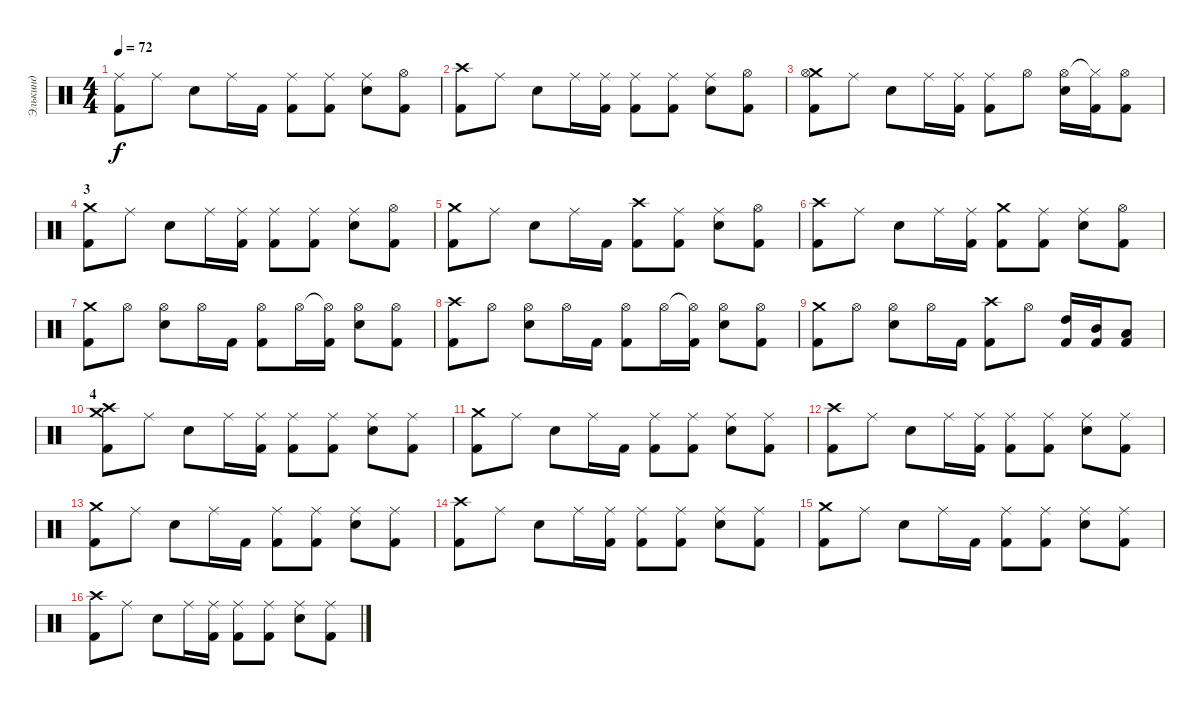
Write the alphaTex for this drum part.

\track ("Элькинд" "Элькинд") {instrument percussion}
\staff {score}
\articulation defaults
\ts (4 4)
\tempo 72
\clef neutral
\ks c
("Ride (middle)" "Kick (hit) 2").8{dy f} "Ride (middle)".8 "Snare (hit) 2".8 "Ride (middle)".16 "Kick (hit) 2".16 ("Ride (middle)" "Kick (hit) 2").8 ("Ride (middle)" "Kick (hit) 2").8 ("Ride (middle)" "Snare (hit) 2").8 ("Hi-Hat (open)" "Kick (hit) 2").8 |
("Crash high (hit)" "Kick (hit) 2").8 "Ride (middle)".8 "Snare (hit) 2".8 "Ride (middle)".16 ("Ride (middle)" "Kick (hit) 2").16 ("Ride (middle)" "Kick (hit) 2").8 ("Ride (middle)" "Kick (hit) 2").8 ("Ride (middle)" "Snare (hit) 2").8 ("Hi-Hat (open)" "Kick (hit) 2").8 |
("Crash medium (hit)" "Hi-Hat (open)" "Kick (hit) 2").8 "Ride (middle)".8 "Snare (hit) 2".8 "Ride (middle)".16 ("Ride (middle)" "Kick (hit) 2").16 ("Ride (middle)" "Kick (hit) 2").8 "Hi-Hat (open)".8 ("Hi-Hat (open)" "Snare (hit) 2").16 ("Hi-Hat (closed)"{t} "Kick (hit) 2").16 ("Hi-Hat (open)" "Kick (hit) 2").8 |
\section ("" "3")
("Crash medium (hit)" "Kick (hit) 2").8 "Ride (middle)".8 "Snare (hit) 2".8 "Ride (middle)".16 ("Ride (middle)" "Kick (hit) 2").16 ("Ride (middle)" "Kick (hit) 2").8 ("Ride (middle)" "Kick (hit) 2").8 ("Ride (middle)" "Snare (hit) 2").8 ("Hi-Hat (open)" "Kick (hit) 2").8 |
("Crash medium (hit)" "Kick (hit) 2").8 "Ride (middle)".8 "Snare (hit) 2".8 "Ride (middle)".16 "Kick (hit) 2".16 ("Crash high (hit)" "Kick (hit) 2").8 ("Ride (middle)" "Kick (hit) 2").8 ("Ride (middle)" "Snare (hit) 2").8 ("Hi-Hat (open)" "Kick (hit) 2").8 |
("Crash high (hit)" "Kick (hit) 2").8 "Ride (middle)".8 "Snare (hit) 2".8 "Ride (middle)".16 ("Ride (middle)" "Kick (hit) 2").16 ("Crash medium (hit)" "Kick (hit) 2").8 ("Ride (middle)" "Kick (hit) 2").8 ("Ride (middle)" "Snare (hit) 2").8 ("Hi-Hat (open)" "Kick (hit) 2").8 |
("Crash medium (hit)" "Kick (hit) 2").8 "Hi-Hat (open)".8 ("Hi-Hat (open)" "Snare (hit) 2").8 "Hi-Hat (open)".16 "Kick (hit) 2".16 ("Hi-Hat (open)" "Kick (hit) 2").8 "Hi-Hat (open)".16 ("Hi-Hat (open)"{t} "Kick (hit) 2").16 ("Hi-Hat (open)" "Snare (hit) 2").8 ("Hi-Hat (open)" "Kick (hit) 2").8 |
("Crash high (hit)" "Kick (hit) 2").8 "Hi-Hat (open)".8 ("Hi-Hat (open)" "Snare (hit) 2").8 "Hi-Hat (open)".16 "Kick (hit) 2".16 ("Hi-Hat (open)" "Kick (hit) 2").8 "Hi-Hat (open)".16 ("Hi-Hat (open)"{t} "Kick (hit) 2").16 ("Hi-Hat (open)" "Snare (hit) 2").8 ("Hi-Hat (open)" "Kick (hit) 2").8 |
("Crash medium (hit)" "Kick (hit) 2").8 "Hi-Hat (open)".8 ("Hi-Hat (open)" "Snare (hit) 2").8 "Hi-Hat (open)".16 "Kick (hit) 2".16 ("Crash high (hit)" "Kick (hit) 2").8 "Hi-Hat (open)".8 ("High Tom (hit)" "Kick (hit) 2").16 ("Mid Tom (hit)" "Kick (hit) 2").16 ("Low Tom (hit)" "Kick (hit) 2").8 |
\section ("" "4")
("Crash medium (hit)" "Crash high (hit)" "Kick (hit) 2").8 "Ride (middle)".8 "Snare (hit) 2".8 "Ride (middle)".16 ("Ride (middle)" "Kick (hit) 2").16 ("Ride (middle)" "Kick (hit) 2").8 ("Ride (middle)" "Kick (hit) 2").8 ("Ride (middle)" "Snare (hit) 2").8 ("Ride (middle)" "Kick (hit) 2").8 |
("Crash medium (hit)" "Kick (hit) 2").8 "Ride (middle)".8 "Snare (hit) 2".8 "Ride (middle)".16 "Kick (hit) 2".16 ("Ride (middle)" "Kick (hit) 2").8 ("Ride (middle)" "Kick (hit) 2").8 ("Ride (middle)" "Snare (hit) 2").8 ("Ride (middle)" "Kick (hit) 2").8 |
("Crash high (hit)" "Kick (hit) 2").8 "Ride (middle)".8 "Snare (hit) 2".8 "Ride (middle)".16 ("Ride (middle)" "Kick (hit) 2").16 ("Ride (middle)" "Kick (hit) 2").8 ("Ride (middle)" "Kick (hit) 2").8 ("Ride (middle)" "Snare (hit) 2").8 ("Ride (middle)" "Kick (hit) 2").8 |
("Crash medium (hit)" "Kick (hit) 2").8 "Ride (middle)".8 "Snare (hit) 2".8 "Ride (middle)".16 "Kick (hit) 2".16 ("Ride (middle)" "Kick (hit) 2").8 ("Ride (middle)" "Kick (hit) 2").8 ("Ride (middle)" "Snare (hit) 2").8 ("Ride (middle)" "Kick (hit) 2").8 |
("Crash high (hit)" "Kick (hit) 2").8 "Ride (middle)".8 "Snare (hit) 2".8 "Ride (middle)".16 ("Ride (middle)" "Kick (hit) 2").16 ("Ride (middle)" "Kick (hit) 2").8 ("Ride (middle)" "Kick (hit) 2").8 ("Ride (middle)" "Snare (hit) 2").8 ("Ride (middle)" "Kick (hit) 2").8 |
("Crash medium (hit)" "Kick (hit) 2").8 "Ride (middle)".8 "Snare (hit) 2".8 "Ride (middle)".16 "Kick (hit) 2".16 ("Ride (middle)" "Kick (hit) 2").8 ("Ride (middle)" "Kick (hit) 2").8 ("Ride (middle)" "Snare (hit) 2").8 ("Ride (middle)" "Kick (hit) 2").8 |
("Crash high (hit)" "Kick (hit) 2").8 "Ride (middle)".8 "Snare (hit) 2".8 "Ride (middle)".16 ("Ride (middle)" "Kick (hit) 2").16 ("Ride (middle)" "Kick (hit) 2").8 ("Ride (middle)" "Kick (hit) 2").8 ("Ride (middle)" "Snare (hit) 2").8 ("Ride (middle)" "Kick (hit) 2").8
